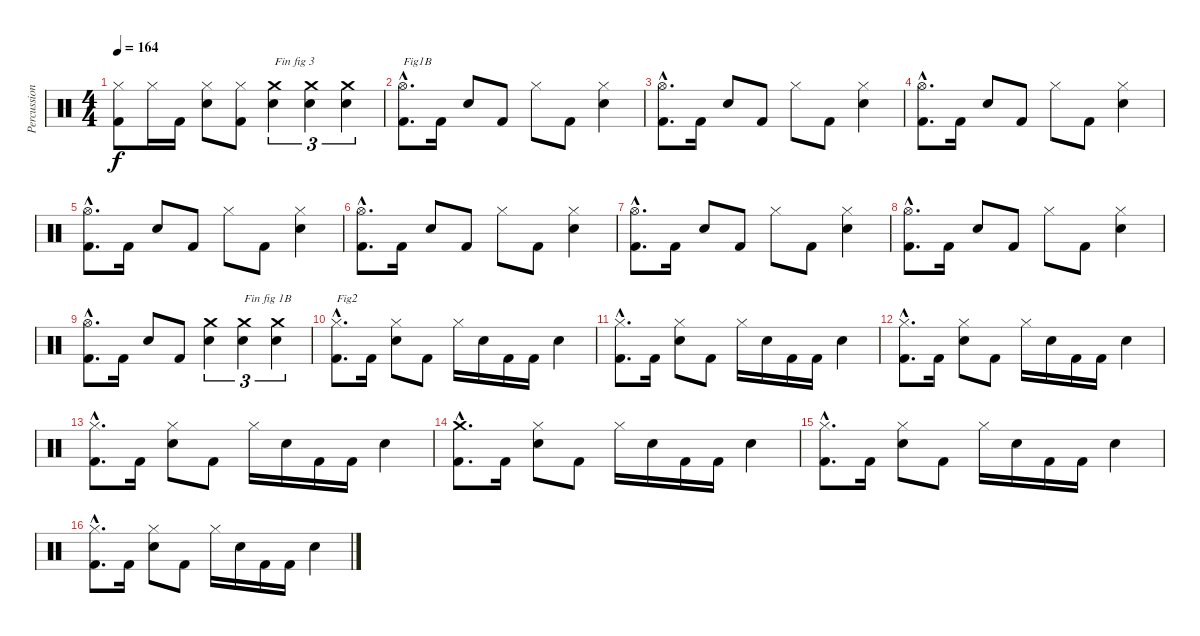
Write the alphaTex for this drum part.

\track ("Percussions" "Percussion") {instrument percussion}
\staff {score}
\articulation defaults
\ts (4 4)
\tempo 164
\clef neutral
\ks c
("Kick (hit) 2" "Hi-Hat (closed)").8{dy f} "Hi-Hat (closed)".16 "Kick (hit) 2".16 ("Electric Snare (hit)" "Hi-Hat (closed)").8 ("Kick (hit) 2" "Hi-Hat (closed)").8 ("Electric Snare (hit)" "Crash medium (hit)").4{tu (3 2) txt "Fin fig 3"} ("Electric Snare (hit)" "Crash medium (hit)").4{tu (3 2)} ("Electric Snare (hit)" "Crash medium (hit)").4{tu (3 2)} |
("Kick (hit) 2"{hac} "Hi-Hat (open)"{hac}).8{d txt "Fig1B"} "Kick (hit) 2".16 "Electric Snare (hit)".8 "Kick (hit) 2".8 "Hi-Hat (closed)".8 "Kick (hit) 2".8 ("Electric Snare (hit)" "Hi-Hat (closed)").4 |
("Kick (hit) 2"{hac} "Hi-Hat (open)"{hac}).8{d} "Kick (hit) 2".16 "Electric Snare (hit)".8 "Kick (hit) 2".8 "Hi-Hat (closed)".8 "Kick (hit) 2".8 ("Electric Snare (hit)" "Hi-Hat (closed)").4 |
("Kick (hit) 2"{hac} "Hi-Hat (open)"{hac}).8{d} "Kick (hit) 2".16 "Electric Snare (hit)".8 "Kick (hit) 2".8 "Hi-Hat (closed)".8 "Kick (hit) 2".8 ("Electric Snare (hit)" "Hi-Hat (closed)").4 |
("Kick (hit) 2"{hac} "Hi-Hat (open)"{hac}).8{d} "Kick (hit) 2".16 "Electric Snare (hit)".8 "Kick (hit) 2".8 "Hi-Hat (closed)".8 "Kick (hit) 2".8 ("Electric Snare (hit)" "Hi-Hat (closed)").4 |
("Kick (hit) 2"{hac} "Hi-Hat (open)"{hac}).8{d} "Kick (hit) 2".16 "Electric Snare (hit)".8 "Kick (hit) 2".8 "Hi-Hat (closed)".8 "Kick (hit) 2".8 ("Electric Snare (hit)" "Hi-Hat (closed)").4 |
("Kick (hit) 2"{hac} "Hi-Hat (open)"{hac}).8{d} "Kick (hit) 2".16 "Electric Snare (hit)".8 "Kick (hit) 2".8 "Hi-Hat (closed)".8 "Kick (hit) 2".8 ("Electric Snare (hit)" "Hi-Hat (closed)").4 |
("Kick (hit) 2"{hac} "Hi-Hat (open)"{hac}).8{d} "Kick (hit) 2".16 "Electric Snare (hit)".8 "Kick (hit) 2".8 "Hi-Hat (closed)".8 "Kick (hit) 2".8 ("Electric Snare (hit)" "Hi-Hat (closed)").4 |
("Kick (hit) 2"{hac} "Hi-Hat (open)"{hac}).8{d} "Kick (hit) 2".16 "Electric Snare (hit)".8 "Kick (hit) 2".8 ("Electric Snare (hit)" "Crash medium (hit)").4{tu (3 2)} ("Electric Snare (hit)" "Crash medium (hit)").4{tu (3 2) txt "Fin fig 1B"} ("Electric Snare (hit)" "Crash medium (hit)").4{tu (3 2)} |
("Kick (hit) 2"{hac} "Hi-Hat (closed)"{hac}).8{d txt "Fig2"} "Kick (hit) 2".16 ("Electric Snare (hit)" "Hi-Hat (closed)").8 "Kick (hit) 2".8 "Hi-Hat (closed)".16 "Electric Snare (hit)".16 "Kick (hit) 2".16 "Kick (hit) 2".16 "Electric Snare (hit)".4 |
("Kick (hit) 2"{hac} "Hi-Hat (closed)"{hac}).8{d} "Kick (hit) 2".16 ("Electric Snare (hit)" "Hi-Hat (closed)").8 "Kick (hit) 2".8 "Hi-Hat (closed)".16 "Electric Snare (hit)".16 "Kick (hit) 2".16 "Kick (hit) 2".16 "Electric Snare (hit)".4 |
("Kick (hit) 2"{hac} "Hi-Hat (closed)"{hac}).8{d} "Kick (hit) 2".16 ("Electric Snare (hit)" "Hi-Hat (closed)").8 "Kick (hit) 2".8 "Hi-Hat (closed)".16 "Electric Snare (hit)".16 "Kick (hit) 2".16 "Kick (hit) 2".16 "Electric Snare (hit)".4 |
("Kick (hit) 2"{hac} "Hi-Hat (closed)"{hac}).8{d} "Kick (hit) 2".16 ("Electric Snare (hit)" "Hi-Hat (closed)").8 "Kick (hit) 2".8 "Hi-Hat (closed)".16 "Electric Snare (hit)".16 "Kick (hit) 2".16 "Kick (hit) 2".16 "Electric Snare (hit)".4 |
("Kick (hit) 2"{hac} "Crash medium (hit)"{hac}).8{d} "Kick (hit) 2".16 ("Electric Snare (hit)" "Hi-Hat (closed)").8 "Kick (hit) 2".8 "Hi-Hat (closed)".16 "Electric Snare (hit)".16 "Kick (hit) 2".16 "Kick (hit) 2".16 "Electric Snare (hit)".4 |
("Kick (hit) 2"{hac} "Hi-Hat (closed)"{hac}).8{d} "Kick (hit) 2".16 ("Electric Snare (hit)" "Hi-Hat (closed)").8 "Kick (hit) 2".8 "Hi-Hat (closed)".16 "Electric Snare (hit)".16 "Kick (hit) 2".16 "Kick (hit) 2".16 "Electric Snare (hit)".4 |
("Kick (hit) 2"{hac} "Hi-Hat (closed)"{hac}).8{d} "Kick (hit) 2".16 ("Electric Snare (hit)" "Hi-Hat (closed)").8 "Kick (hit) 2".8 "Hi-Hat (closed)".16 "Electric Snare (hit)".16 "Kick (hit) 2".16 "Kick (hit) 2".16 "Electric Snare (hit)".4
